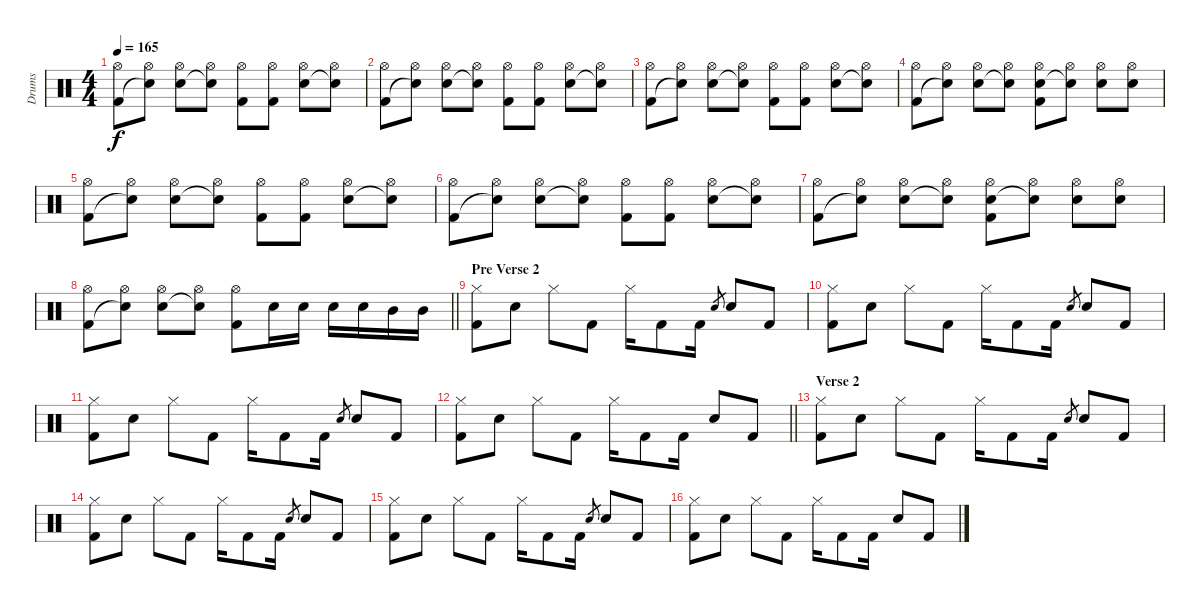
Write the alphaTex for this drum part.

\track ("Drums" "Drums") {instrument percussion}
\staff {score}
\articulation defaults
\ts (4 4)
\tempo 165
\clef neutral
\ks c
("Hi-Hat (open)" "Kick (hit) 2").8{dy f} ("Hi-Hat (open)" "Snare (hit)"{t}).8 ("Hi-Hat (open)" "Electric Snare (hit)").8 ("Hi-Hat (open)" "Snare (hit)"{t}).8 ("Hi-Hat (open)" "Kick (hit) 2").8 ("Hi-Hat (open)" "Kick (hit) 2").8 ("Hi-Hat (open)" "Electric Snare (hit)").8 ("Hi-Hat (open)" "Snare (hit)"{t}).8 |
("Hi-Hat (open)" "Kick (hit) 2").8 ("Hi-Hat (open)" "Snare (hit)"{t}).8 ("Hi-Hat (open)" "Electric Snare (hit)").8 ("Hi-Hat (open)" "Snare (hit)"{t}).8 ("Hi-Hat (open)" "Kick (hit) 2").8 ("Hi-Hat (open)" "Kick (hit) 2").8 ("Hi-Hat (open)" "Electric Snare (hit)").8 ("Hi-Hat (open)" "Snare (hit)"{t}).8 |
("Hi-Hat (open)" "Kick (hit) 2").8 ("Hi-Hat (open)" "Snare (hit)"{t}).8 ("Hi-Hat (open)" "Electric Snare (hit)").8 ("Hi-Hat (open)" "Snare (hit)"{t}).8 ("Hi-Hat (open)" "Kick (hit) 2").8 ("Hi-Hat (open)" "Kick (hit) 2").8 ("Hi-Hat (open)" "Electric Snare (hit)").8 ("Hi-Hat (open)" "Snare (hit)"{t}).8 |
("Hi-Hat (open)" "Kick (hit) 2").8 ("Hi-Hat (open)" "Snare (hit)"{t}).8 ("Hi-Hat (open)" "Electric Snare (hit)").8 ("Hi-Hat (open)" "Snare (hit)"{t}).8 ("Hi-Hat (open)" "Electric Snare (hit)" "Kick (hit) 2").8 ("Hi-Hat (open)" "Electric Snare (hit)"{t}).8 ("Hi-Hat (open)" "Electric Snare (hit)").8 ("Hi-Hat (open)" "Electric Snare (hit)").8 |
("Hi-Hat (open)" "Kick (hit) 2").8 ("Hi-Hat (open)" "Snare (hit)"{t}).8 ("Hi-Hat (open)" "Electric Snare (hit)").8 ("Hi-Hat (open)" "Snare (hit)"{t}).8 ("Hi-Hat (open)" "Kick (hit) 2").8 ("Hi-Hat (open)" "Kick (hit) 2").8 ("Hi-Hat (open)" "Electric Snare (hit)").8 ("Hi-Hat (open)" "Snare (hit)"{t}).8 |
("Hi-Hat (open)" "Kick (hit) 2").8 ("Hi-Hat (open)" "Snare (hit)"{t}).8 ("Hi-Hat (open)" "Electric Snare (hit)").8 ("Hi-Hat (open)" "Snare (hit)"{t}).8 ("Hi-Hat (open)" "Kick (hit) 2").8 ("Hi-Hat (open)" "Kick (hit) 2").8 ("Hi-Hat (open)" "Electric Snare (hit)").8 ("Hi-Hat (open)" "Snare (hit)"{t}).8 |
("Hi-Hat (open)" "Kick (hit) 2").8 ("Hi-Hat (open)" "Snare (hit)"{t}).8 ("Hi-Hat (open)" "Electric Snare (hit)").8 ("Hi-Hat (open)" "Snare (hit)"{t}).8 ("Hi-Hat (open)" "Electric Snare (hit)" "Kick (hit) 2").8 ("Hi-Hat (open)" "Electric Snare (hit)"{t}).8 ("Hi-Hat (open)" "Electric Snare (hit)").8 ("Hi-Hat (open)" "Electric Snare (hit)").8 |
\barLineRight lightlight
("Hi-Hat (open)" "Kick (hit) 2").8 ("Hi-Hat (open)" "Snare (hit)"{t}).8 ("Hi-Hat (open)" "Electric Snare (hit)").8 ("Hi-Hat (open)" "Snare (hit)"{t}).8 ("Hi-Hat (open)" "Kick (hit) 2").8 "Electric Snare (hit)".16 "Electric Snare (hit)".16 "Electric Snare (hit)".16 "Electric Snare (hit)".16 "Mid Tom (hit)".16 "Mid Tom (hit)".16 |
\section ("" "Pre Verse 2")
("Hi-Hat (closed)" "Kick (hit) 2").8 "Electric Snare (hit)".8 "Hi-Hat (closed)".8 "Kick (hit) 2".8 "Hi-Hat (closed)".16 "Kick (hit) 2".8 "Kick (hit) 2".16 "Electric Snare (hit)".8{gr} "Electric Snare (hit)".8 "Kick (hit) 2".8 |
("Hi-Hat (closed)" "Kick (hit) 2").8 "Electric Snare (hit)".8 "Hi-Hat (closed)".8 "Kick (hit) 2".8 "Hi-Hat (closed)".16 "Kick (hit) 2".8 "Kick (hit) 2".16 "Electric Snare (hit)".8{gr} "Electric Snare (hit)".8 "Kick (hit) 2".8 |
("Hi-Hat (closed)" "Kick (hit) 2").8 "Electric Snare (hit)".8 "Hi-Hat (closed)".8 "Kick (hit) 2".8 "Hi-Hat (closed)".16 "Kick (hit) 2".8 "Kick (hit) 2".16 "Electric Snare (hit)".8{gr} "Electric Snare (hit)".8 "Kick (hit) 2".8 |
\barLineRight lightlight
("Hi-Hat (closed)" "Kick (hit) 2").8 "Electric Snare (hit)".8 "Hi-Hat (closed)".8 "Kick (hit) 2".8 "Hi-Hat (closed)".16 "Kick (hit) 2".8 "Kick (hit) 2".16 "Electric Snare (hit)".8 "Kick (hit) 2".8 |
\section ("" "Verse 2")
("Hi-Hat (closed)" "Kick (hit) 2").8 "Electric Snare (hit)".8 "Hi-Hat (closed)".8 "Kick (hit) 2".8 "Hi-Hat (closed)".16 "Kick (hit) 2".8 "Kick (hit) 2".16 "Electric Snare (hit)".8{gr} "Electric Snare (hit)".8 "Kick (hit) 2".8 |
("Hi-Hat (closed)" "Kick (hit) 2").8 "Electric Snare (hit)".8 "Hi-Hat (closed)".8 "Kick (hit) 2".8 "Hi-Hat (closed)".16 "Kick (hit) 2".8 "Kick (hit) 2".16 "Electric Snare (hit)".8{gr} "Electric Snare (hit)".8 "Kick (hit) 2".8 |
("Hi-Hat (closed)" "Kick (hit) 2").8 "Electric Snare (hit)".8 "Hi-Hat (closed)".8 "Kick (hit) 2".8 "Hi-Hat (closed)".16 "Kick (hit) 2".8 "Kick (hit) 2".16 "Electric Snare (hit)".8{gr} "Electric Snare (hit)".8 "Kick (hit) 2".8 |
("Hi-Hat (closed)" "Kick (hit) 2").8 "Electric Snare (hit)".8 "Hi-Hat (closed)".8 "Kick (hit) 2".8 "Hi-Hat (closed)".16 "Kick (hit) 2".8 "Kick (hit) 2".16 "Electric Snare (hit)".8 "Kick (hit) 2".8
